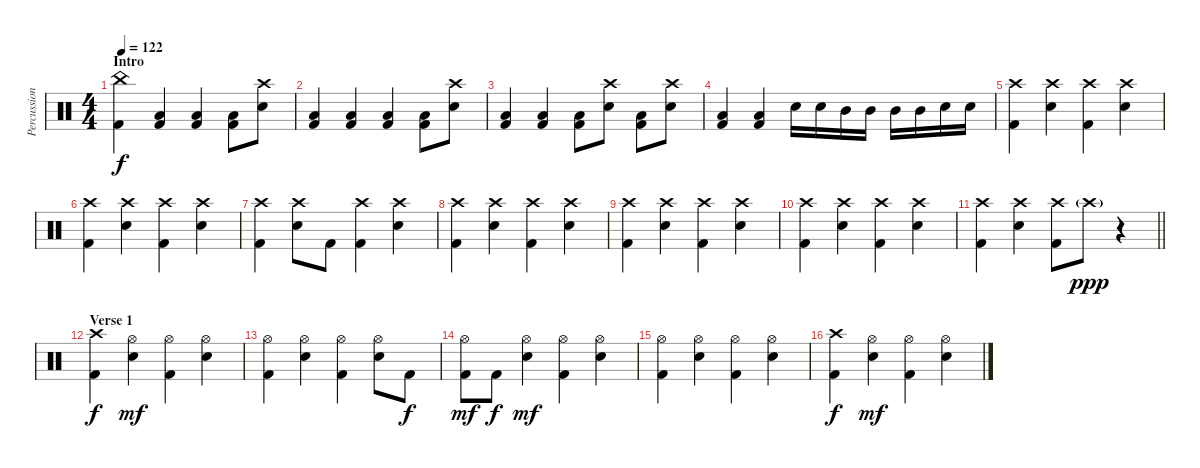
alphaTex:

\track ("Percussion" "Percussion") {instrument percussion}
\staff {score}
\articulation defaults
\ts (4 4)
\section ("" "Intro")
\tempo 122
\clef neutral
\ks c
("China (hit)" "Kick (hit) 2").4{dy f} ("Low Tom (hit)" "Kick (hit) 2").4 ("Low Tom (hit)" "Kick (hit) 2").4 ("Low Tom (hit)" "Kick (hit) 2").8 ("Crash high (hit)" "Electric Snare (hit)").8 |
("Low Tom (hit)" "Kick (hit) 2").4 ("Low Tom (hit)" "Kick (hit) 2").4 ("Low Tom (hit)" "Kick (hit) 2").4 ("Low Tom (hit)" "Kick (hit) 2").8 ("Crash high (hit)" "Electric Snare (hit)").8 |
("Low Tom (hit)" "Kick (hit) 2").4 ("Low Tom (hit)" "Kick (hit) 2").4 ("Low Tom (hit)" "Kick (hit) 2").8 ("Crash high (hit)" "Electric Snare (hit)").8 ("Low Tom (hit)" "Kick (hit) 2").8 ("Crash high (hit)" "Electric Snare (hit)").8 |
("Low Tom (hit)" "Kick (hit) 2").4 ("Low Tom (hit)" "Kick (hit) 2").4 "Electric Snare (hit)".16 "Electric Snare (hit)".16 "Mid Tom (hit)".16 "Mid Tom (hit)".16 "Mid Tom (hit)".16 "Mid Tom (hit)".16 "Electric Snare (hit)".16 "Electric Snare (hit)".16 |
("Crash high (hit)" "Kick (hit) 2").4 ("Crash high (hit)" "Electric Snare (hit)").4 ("Crash high (hit)" "Kick (hit) 2").4 ("Crash high (hit)" "Electric Snare (hit)").4 |
("Crash high (hit)" "Kick (hit) 2").4 ("Crash high (hit)" "Electric Snare (hit)").4 ("Crash high (hit)" "Kick (hit) 2").4 ("Crash high (hit)" "Electric Snare (hit)").4 |
("Crash high (hit)" "Kick (hit) 2").4 ("Crash high (hit)" "Electric Snare (hit)").8 "Kick (hit) 2".8 ("Crash high (hit)" "Kick (hit) 2").4 ("Crash high (hit)" "Electric Snare (hit)").4 |
("Crash high (hit)" "Kick (hit) 2").4 ("Crash high (hit)" "Electric Snare (hit)").4 ("Crash high (hit)" "Kick (hit) 2").4 ("Crash high (hit)" "Electric Snare (hit)").4 |
("Crash high (hit)" "Kick (hit) 2").4 ("Crash high (hit)" "Electric Snare (hit)").4 ("Crash high (hit)" "Kick (hit) 2").4 ("Crash high (hit)" "Electric Snare (hit)").4 |
("Crash high (hit)" "Kick (hit) 2").4 ("Crash high (hit)" "Electric Snare (hit)").4 ("Crash high (hit)" "Kick (hit) 2").4 ("Crash high (hit)" "Electric Snare (hit)").4 |
\barLineRight lightlight
("Crash high (hit)" "Kick (hit) 2").4 ("Crash high (hit)" "Electric Snare (hit)").4 ("Crash high (hit)" "Kick (hit) 2").8 "Crash high (hit)"{g}.8{dy ppp} r.4 |
\section ("" "Verse 1")
("Crash high (hit)" "Kick (hit) 2").4{dy f} ("Hi-Hat (open)" "Electric Snare (hit)").4{dy mf} ("Hi-Hat (open)" "Kick (hit) 2").4 ("Hi-Hat (open)" "Electric Snare (hit)").4 |
("Hi-Hat (open)" "Kick (hit) 2").4 ("Hi-Hat (open)" "Electric Snare (hit)").4 ("Hi-Hat (open)" "Kick (hit) 2").4 ("Hi-Hat (open)" "Electric Snare (hit)").8 "Kick (hit) 2".8{dy f} |
("Hi-Hat (open)" "Kick (hit) 2").8{dy mf} "Kick (hit) 2".8{dy f} ("Hi-Hat (open)" "Electric Snare (hit)").4{dy mf} ("Hi-Hat (open)" "Kick (hit) 2").4 ("Hi-Hat (open)" "Electric Snare (hit)").4 |
("Hi-Hat (open)" "Kick (hit) 2").4 ("Hi-Hat (open)" "Electric Snare (hit)").4 ("Hi-Hat (open)" "Kick (hit) 2").4 ("Hi-Hat (open)" "Electric Snare (hit)").4 |
("Crash high (hit)" "Kick (hit) 2").4{dy f} ("Hi-Hat (open)" "Electric Snare (hit)").4{dy mf} ("Hi-Hat (open)" "Kick (hit) 2").4 ("Hi-Hat (open)" "Electric Snare (hit)").4
